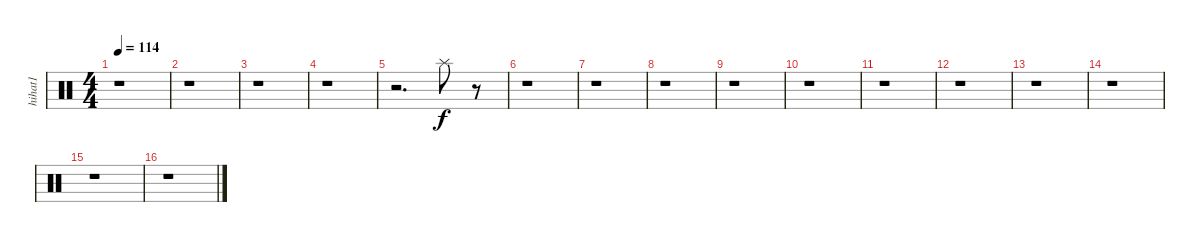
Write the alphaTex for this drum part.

\track ("hihat1              " "hihat1    ") {instrument percussion}
\staff {score}
\articulation defaults
\ts (4 4)
\tempo 114
\clef neutral
\ks c
r.1{dy f} |
r.1 |
r.1 |
r.1 |
r.2{d} "Splash (hit)".8 r.8 |
r.1 |
r.1 |
r.1 |
r.1 |
r.1 |
r.1 |
r.1 |
r.1 |
r.1 |
r.1 |
r.1
